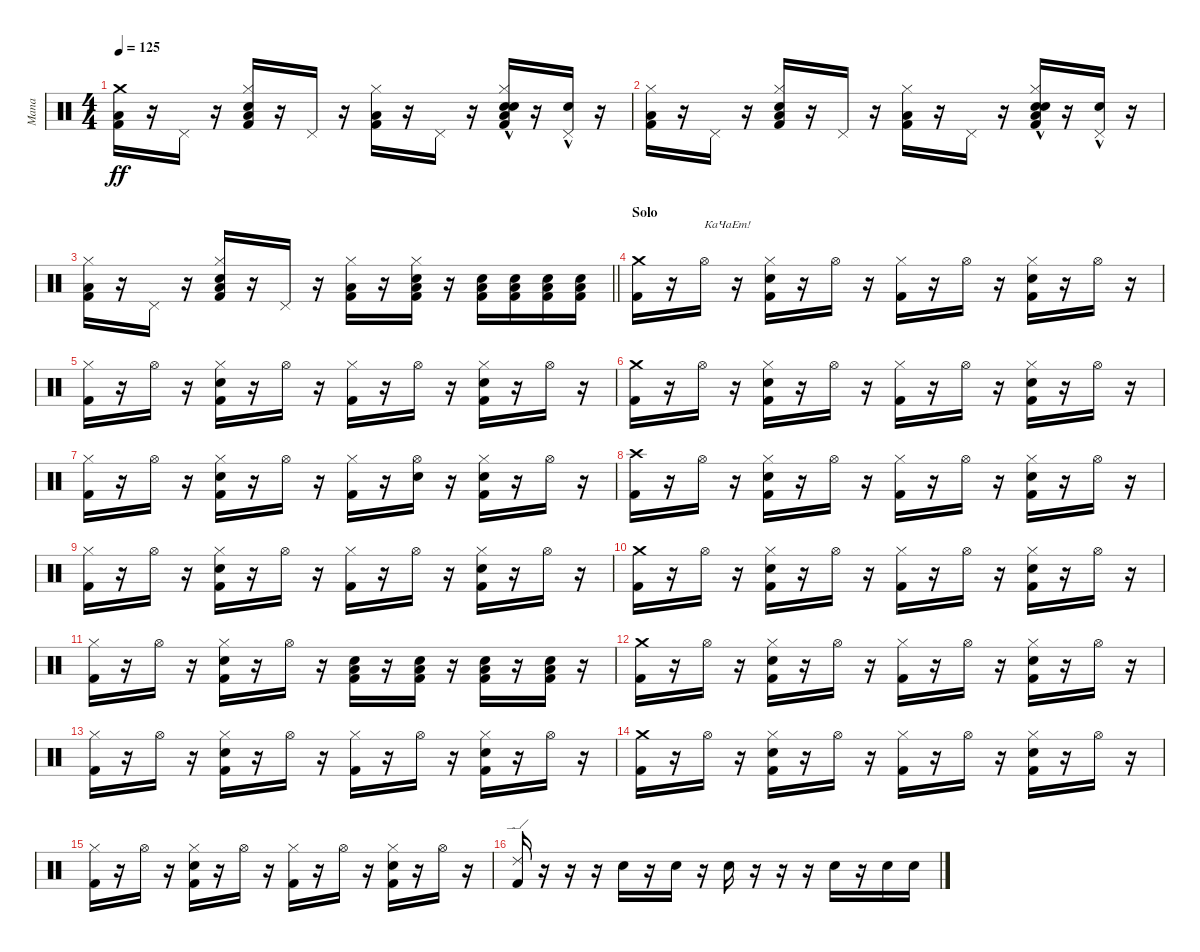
\track ("Mana" "Mana") {instrument percussion}
\staff {score}
\articulation defaults
\ts (4 4)
\tempo 125
\clef neutral
\ks c
("Crash medium (hit)" "Low Floor Tom (hit)" "Kick (hit) 2").16{dy ff} r.16 "Pedal Hi-Hat (hit)".16 r.16 ("Hi-Hat (closed)" "Snare (hit) 2" "Low Floor Tom (hit)" "Kick (hit) 2").16 r.16 "Pedal Hi-Hat (hit)".16 r.16 ("Hi-Hat (closed)" "Low Floor Tom (hit)" "Kick (hit) 2").16 r.16 "Pedal Hi-Hat (hit)".16 r.16 ("Hand Clap (hit)"{hac} "Hi-Hat (closed)" "Snare (hit) 2" "Low Floor Tom (hit)" "Kick (hit) 2").16 r.16 ("Hand Clap (hit)"{hac} "Pedal Hi-Hat (hit)").16 r.16 |
("Hi-Hat (closed)" "Low Floor Tom (hit)" "Kick (hit) 2").16 r.16 "Pedal Hi-Hat (hit)".16 r.16 ("Hi-Hat (closed)" "Snare (hit) 2" "Low Floor Tom (hit)" "Kick (hit) 2").16 r.16 "Pedal Hi-Hat (hit)".16 r.16 ("Hi-Hat (closed)" "Low Floor Tom (hit)" "Kick (hit) 2").16 r.16 "Pedal Hi-Hat (hit)".16 r.16 ("Hand Clap (hit)"{hac} "Hi-Hat (closed)" "Snare (hit) 2" "Low Floor Tom (hit)" "Kick (hit) 2").16 r.16 ("Hand Clap (hit)"{hac} "Pedal Hi-Hat (hit)").16 r.16 |
\barLineRight lightlight
("Hi-Hat (closed)" "Low Floor Tom (hit)" "Kick (hit) 2").16 r.16 "Pedal Hi-Hat (hit)".16 r.16 ("Hi-Hat (closed)" "Snare (hit) 2" "Low Floor Tom (hit)" "Kick (hit) 2").16 r.16 "Pedal Hi-Hat (hit)".16 r.16 ("Hi-Hat (closed)" "Low Floor Tom (hit)" "Kick (hit) 2").16 r.16 ("Hi-Hat (closed)" "Snare (hit) 2" "Low Floor Tom (hit)" "Kick (hit) 2").16 r.16 ("Low Floor Tom (hit)" "Snare (hit) 2" "Kick (hit) 2").16 ("Low Floor Tom (hit)" "Snare (hit) 2" "Kick (hit) 2").16 ("Low Floor Tom (hit)" "Snare (hit) 2" "Kick (hit) 2").16 ("Low Floor Tom (hit)" "Snare (hit) 2" "Kick (hit) 2").16 |
\section ("" "Solo")
("Crash medium (hit)" "Kick (hit) 2").16 r.16 "Hi-Hat (open)".16{txt "КаЧаЕт!"} r.16 ("Hi-Hat (closed)" "Snare (hit) 2" "Kick (hit) 2").16 r.16 "Hi-Hat (open)".16 r.16 ("Hi-Hat (closed)" "Kick (hit) 2").16 r.16 "Hi-Hat (open)".16 r.16 ("Hi-Hat (closed)" "Snare (hit) 2" "Kick (hit) 2").16 r.16 "Hi-Hat (open)".16 r.16 |
("Hi-Hat (closed)" "Kick (hit) 2").16 r.16 "Hi-Hat (open)".16 r.16 ("Hi-Hat (closed)" "Snare (hit) 2" "Kick (hit) 2").16 r.16 "Hi-Hat (open)".16 r.16 ("Hi-Hat (closed)" "Kick (hit) 2").16 r.16 "Hi-Hat (open)".16 r.16 ("Hi-Hat (closed)" "Snare (hit) 2" "Kick (hit) 2").16 r.16 "Hi-Hat (open)".16 r.16 |
("Crash medium (hit)" "Kick (hit) 2").16 r.16 "Hi-Hat (open)".16 r.16 ("Hi-Hat (closed)" "Snare (hit) 2" "Kick (hit) 2").16 r.16 "Hi-Hat (open)".16 r.16 ("Hi-Hat (closed)" "Kick (hit) 2").16 r.16 "Hi-Hat (open)".16 r.16 ("Hi-Hat (closed)" "Snare (hit) 2" "Kick (hit) 2").16 r.16 "Hi-Hat (open)".16 r.16 |
("Hi-Hat (closed)" "Kick (hit) 2").16 r.16 "Hi-Hat (open)".16 r.16 ("Hi-Hat (closed)" "Snare (hit) 2" "Kick (hit) 2").16 r.16 "Hi-Hat (open)".16 r.16 ("Hi-Hat (closed)" "Kick (hit) 2").16 r.16 ("Snare (hit) 2" "Hi-Hat (open)").16 r.16 ("Hi-Hat (closed)" "Snare (hit) 2" "Kick (hit) 2").16 r.16 "Hi-Hat (open)".16 r.16 |
("Crash high (hit)" "Kick (hit) 2").16 r.16 "Hi-Hat (open)".16 r.16 ("Hi-Hat (closed)" "Snare (hit) 2" "Kick (hit) 2").16 r.16 "Hi-Hat (open)".16 r.16 ("Hi-Hat (closed)" "Kick (hit) 2").16 r.16 "Hi-Hat (open)".16 r.16 ("Hi-Hat (closed)" "Snare (hit) 2" "Kick (hit) 2").16 r.16 "Hi-Hat (open)".16 r.16 |
("Hi-Hat (closed)" "Kick (hit) 2").16 r.16 "Hi-Hat (open)".16 r.16 ("Hi-Hat (closed)" "Snare (hit) 2" "Kick (hit) 2").16 r.16 "Hi-Hat (open)".16 r.16 ("Hi-Hat (closed)" "Kick (hit) 2").16 r.16 "Hi-Hat (open)".16 r.16 ("Hi-Hat (closed)" "Snare (hit) 2" "Kick (hit) 2").16 r.16 "Hi-Hat (open)".16 r.16 |
("Crash medium (hit)" "Kick (hit) 2").16 r.16 "Hi-Hat (open)".16 r.16 ("Hi-Hat (closed)" "Snare (hit) 2" "Kick (hit) 2").16 r.16 "Hi-Hat (open)".16 r.16 ("Hi-Hat (closed)" "Kick (hit) 2").16 r.16 "Hi-Hat (open)".16 r.16 ("Hi-Hat (closed)" "Snare (hit) 2" "Kick (hit) 2").16 r.16 "Hi-Hat (open)".16 r.16 |
("Hi-Hat (closed)" "Kick (hit) 2").16 r.16 "Hi-Hat (open)".16 r.16 ("Hi-Hat (closed)" "Snare (hit) 2" "Kick (hit) 2").16 r.16 "Hi-Hat (open)".16 r.16 ("Low Floor Tom (hit)" "Snare (hit) 2" "Kick (hit) 2").16 r.16 ("Low Floor Tom (hit)" "Snare (hit) 2" "Kick (hit) 2").16 r.16 ("Low Floor Tom (hit)" "Snare (hit) 2" "Kick (hit) 2").16 r.16 ("Low Floor Tom (hit)" "Snare (hit) 2" "Kick (hit) 2").16 r.16 |
("Crash medium (hit)" "Kick (hit) 2").16 r.16 "Hi-Hat (open)".16 r.16 ("Hi-Hat (closed)" "Snare (hit) 2" "Kick (hit) 2").16 r.16 "Hi-Hat (open)".16 r.16 ("Hi-Hat (closed)" "Kick (hit) 2").16 r.16 "Hi-Hat (open)".16 r.16 ("Hi-Hat (closed)" "Snare (hit) 2" "Kick (hit) 2").16 r.16 "Hi-Hat (open)".16 r.16 |
("Hi-Hat (closed)" "Kick (hit) 2").16 r.16 "Hi-Hat (open)".16 r.16 ("Hi-Hat (closed)" "Snare (hit) 2" "Kick (hit) 2").16 r.16 "Hi-Hat (open)".16 r.16 ("Hi-Hat (closed)" "Kick (hit) 2").16 r.16 "Hi-Hat (open)".16 r.16 ("Hi-Hat (closed)" "Snare (hit) 2" "Kick (hit) 2").16 r.16 "Hi-Hat (open)".16 r.16 |
("Crash medium (hit)" "Kick (hit) 2").16 r.16 "Hi-Hat (open)".16 r.16 ("Hi-Hat (closed)" "Snare (hit) 2" "Kick (hit) 2").16 r.16 "Hi-Hat (open)".16 r.16 ("Hi-Hat (closed)" "Kick (hit) 2").16 r.16 "Hi-Hat (open)".16 r.16 ("Hi-Hat (closed)" "Snare (hit) 2" "Kick (hit) 2").16 r.16 "Hi-Hat (open)".16 r.16 |
("Hi-Hat (closed)" "Kick (hit) 2").16 r.16 "Hi-Hat (open)".16 r.16 ("Hi-Hat (closed)" "Snare (hit) 2" "Kick (hit) 2").16 r.16 "Hi-Hat (open)".16 r.16 ("Hi-Hat (closed)" "Kick (hit) 2").16 r.16 "Hi-Hat (open)".16 r.16 ("Hi-Hat (closed)" "Snare (hit) 2" "Kick (hit) 2").16 r.16 "Hi-Hat (open)".16 r.16 |
("Ride (edge) 2" "Kick (hit) 2").16 r.16 r.16 r.16 "Snare (hit) 2".16 r.16 "Snare (hit) 2".16 r.16 "Snare (hit) 2".16 r.16 r.16 r.16 "Snare (hit) 2".16 r.16 "Snare (hit) 2".16 "Snare (hit) 2".16
